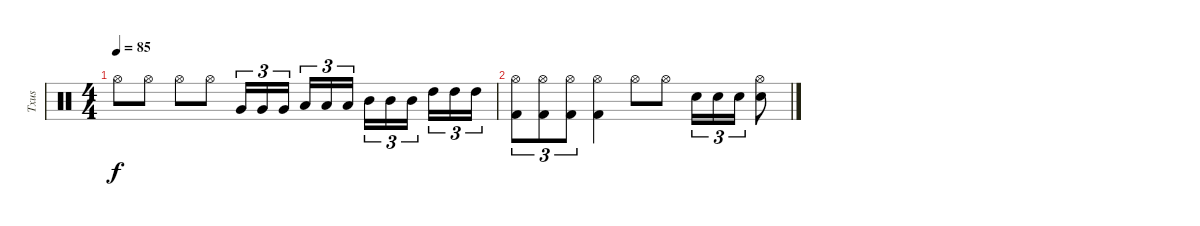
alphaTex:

\track ("Txus" "Txus") {instrument percussion}
\staff {score}
\articulation defaults
\ts (4 4)
\tempo 85
\clef neutral
\ks c "Hi-Hat (open)".8{dy f volume 16 balance 16} "Hi-Hat (open)".8 "Hi-Hat (open)".8 "Hi-Hat (open)".8 "Very Low Tom (hit)".16{tu (3 2)} "Very Low Tom (hit)".16{tu (3 2)} "Very Low Tom (hit)".16{tu (3 2)} "Low Tom (hit)".16{tu (3 2)} "Low Tom (hit)".16{tu (3 2)} "Low Tom (hit)".16{tu (3 2)} "Mid Tom (hit)".16{tu (3 2)} "Mid Tom (hit)".16{tu (3 2)} "Mid Tom (hit)".16{tu (3 2)} "High Tom (hit)".16{tu (3 2)} "High Tom (hit)".16{tu (3 2)} "High Tom (hit)".16{tu (3 2)}
|
("Hi-Hat (open)" "Kick (hit) 2").8{tu (3 2)} ("Hi-Hat (open)" "Kick (hit) 2").8{tu (3 2)} ("Hi-Hat (open)" "Kick (hit) 2").8{tu (3 2)} ("Hi-Hat (open)" "Kick (hit) 2").4 "Hi-Hat (open)".8 "Hi-Hat (open)".8 "Snare (hit) 2".16{tu (3 2)} "Snare (hit) 2".16{tu (3 2)} "Snare (hit) 2".16{tu (3 2)} ("Hi-Hat (open)" "Snare (hit) 2").8
